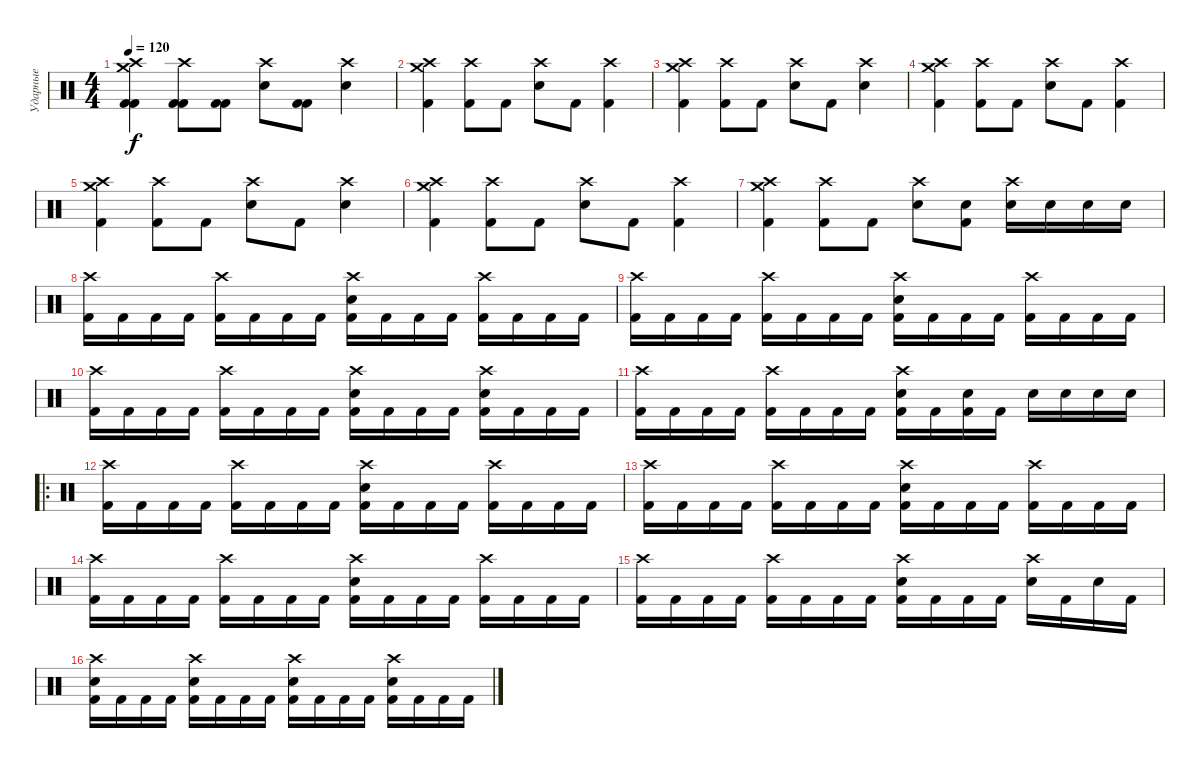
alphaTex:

\track ("Ударные" "Ударные") {instrument percussion}
\staff {score}
\articulation defaults
\ts (4 4)
\tempo 120
\clef neutral
\ks c
("Crash medium (hit)" "Crash high (hit)" "Kick (hit) 2" "Kick (hit) 2").4{dy f} ("Crash high (hit)" "Kick (hit) 2" "Kick (hit) 2").8 ("Kick (hit) 2" "Kick (hit) 2").8 ("Crash high (hit)" "Electric Snare (hit)").8 ("Kick (hit) 2" "Kick (hit) 2").8 ("Crash high (hit)" "Electric Snare (hit)").4 |
("Crash medium (hit)" "Crash high (hit)" "Kick (hit) 2").4 ("Crash high (hit)" "Kick (hit) 2").8 "Kick (hit) 2".8 ("Crash high (hit)" "Electric Snare (hit)").8 "Kick (hit) 2".8 ("Crash high (hit)" "Kick (hit) 2").4 |
("Crash medium (hit)" "Crash high (hit)" "Kick (hit) 2").4 ("Crash high (hit)" "Kick (hit) 2").8 "Kick (hit) 2".8 ("Crash high (hit)" "Electric Snare (hit)").8 "Kick (hit) 2".8 ("Crash high (hit)" "Electric Snare (hit)").4 |
("Crash medium (hit)" "Crash high (hit)" "Kick (hit) 2").4 ("Crash high (hit)" "Kick (hit) 2").8 "Kick (hit) 2".8 ("Crash high (hit)" "Electric Snare (hit)").8 "Kick (hit) 2".8 ("Crash high (hit)" "Kick (hit) 2").4 |
("Crash medium (hit)" "Crash high (hit)" "Kick (hit) 2").4 ("Crash high (hit)" "Kick (hit) 2").8 "Kick (hit) 2".8 ("Crash high (hit)" "Electric Snare (hit)").8 "Kick (hit) 2".8 ("Crash high (hit)" "Electric Snare (hit)").4 |
("Crash medium (hit)" "Crash high (hit)" "Kick (hit) 2").4 ("Crash high (hit)" "Kick (hit) 2").8 "Kick (hit) 2".8 ("Crash high (hit)" "Electric Snare (hit)").8 "Kick (hit) 2".8 ("Crash high (hit)" "Kick (hit) 2").4 |
("Crash medium (hit)" "Crash high (hit)" "Kick (hit) 2").4 ("Crash high (hit)" "Kick (hit) 2").8 "Kick (hit) 2".8 ("Crash high (hit)" "Electric Snare (hit)").8 ("Electric Snare (hit)" "Kick (hit) 2").8 ("Crash high (hit)" "Electric Snare (hit)").16 "Electric Snare (hit)".16 "Electric Snare (hit)".16 "Electric Snare (hit)".16 |
("Crash high (hit)" "Kick (hit) 2").16 "Kick (hit) 2".16 "Kick (hit) 2".16 "Kick (hit) 2".16 ("Crash high (hit)" "Kick (hit) 2").16 "Kick (hit) 2".16 "Kick (hit) 2".16 "Kick (hit) 2".16 ("Crash high (hit)" "Electric Snare (hit)" "Kick (hit) 2").16 "Kick (hit) 2".16 "Kick (hit) 2".16 "Kick (hit) 2".16 ("Crash high (hit)" "Kick (hit) 2").16 "Kick (hit) 2".16 "Kick (hit) 2".16 "Kick (hit) 2".16 |
("Crash high (hit)" "Kick (hit) 2").16 "Kick (hit) 2".16 "Kick (hit) 2".16 "Kick (hit) 2".16 ("Crash high (hit)" "Kick (hit) 2").16 "Kick (hit) 2".16 "Kick (hit) 2".16 "Kick (hit) 2".16 ("Crash high (hit)" "Electric Snare (hit)" "Kick (hit) 2").16 "Kick (hit) 2".16 "Kick (hit) 2".16 "Kick (hit) 2".16 ("Crash high (hit)" "Kick (hit) 2").16 "Kick (hit) 2".16 "Kick (hit) 2".16 "Kick (hit) 2".16 |
("Crash high (hit)" "Kick (hit) 2").16 "Kick (hit) 2".16 "Kick (hit) 2".16 "Kick (hit) 2".16 ("Crash high (hit)" "Kick (hit) 2").16 "Kick (hit) 2".16 "Kick (hit) 2".16 "Kick (hit) 2".16 ("Crash high (hit)" "Electric Snare (hit)" "Kick (hit) 2").16 "Kick (hit) 2".16 "Kick (hit) 2".16 "Kick (hit) 2".16 ("Crash high (hit)" "Electric Snare (hit)" "Kick (hit) 2").16 "Kick (hit) 2".16 "Kick (hit) 2".16 "Kick (hit) 2".16 |
("Crash high (hit)" "Kick (hit) 2").16 "Kick (hit) 2".16 "Kick (hit) 2".16 "Kick (hit) 2".16 ("Crash high (hit)" "Kick (hit) 2").16 "Kick (hit) 2".16 "Kick (hit) 2".16 "Kick (hit) 2".16 ("Crash high (hit)" "Electric Snare (hit)" "Kick (hit) 2").16 "Kick (hit) 2".16 ("Electric Snare (hit)" "Kick (hit) 2").16 "Kick (hit) 2".16 "Electric Snare (hit)".16 "Electric Snare (hit)".16 "Electric Snare (hit)".16 "Electric Snare (hit)".16 |
\ro
("Crash high (hit)" "Kick (hit) 2").16 "Kick (hit) 2".16 "Kick (hit) 2".16 "Kick (hit) 2".16 ("Crash high (hit)" "Kick (hit) 2").16 "Kick (hit) 2".16 "Kick (hit) 2".16 "Kick (hit) 2".16 ("Crash high (hit)" "Electric Snare (hit)" "Kick (hit) 2").16 "Kick (hit) 2".16 "Kick (hit) 2".16 "Kick (hit) 2".16 ("Crash high (hit)" "Kick (hit) 2").16 "Kick (hit) 2".16 "Kick (hit) 2".16 "Kick (hit) 2".16 |
("Crash high (hit)" "Kick (hit) 2").16 "Kick (hit) 2".16 "Kick (hit) 2".16 "Kick (hit) 2".16 ("Crash high (hit)" "Kick (hit) 2").16 "Kick (hit) 2".16 "Kick (hit) 2".16 "Kick (hit) 2".16 ("Crash high (hit)" "Electric Snare (hit)" "Kick (hit) 2").16 "Kick (hit) 2".16 "Kick (hit) 2".16 "Kick (hit) 2".16 ("Crash high (hit)" "Kick (hit) 2").16 "Kick (hit) 2".16 "Kick (hit) 2".16 "Kick (hit) 2".16 |
("Crash high (hit)" "Kick (hit) 2").16 "Kick (hit) 2".16 "Kick (hit) 2".16 "Kick (hit) 2".16 ("Crash high (hit)" "Kick (hit) 2").16 "Kick (hit) 2".16 "Kick (hit) 2".16 "Kick (hit) 2".16 ("Crash high (hit)" "Electric Snare (hit)" "Kick (hit) 2").16 "Kick (hit) 2".16 "Kick (hit) 2".16 "Kick (hit) 2".16 ("Crash high (hit)" "Kick (hit) 2").16 "Kick (hit) 2".16 "Kick (hit) 2".16 "Kick (hit) 2".16 |
("Crash high (hit)" "Kick (hit) 2").16 "Kick (hit) 2".16 "Kick (hit) 2".16 "Kick (hit) 2".16 ("Crash high (hit)" "Kick (hit) 2").16 "Kick (hit) 2".16 "Kick (hit) 2".16 "Kick (hit) 2".16 ("Crash high (hit)" "Electric Snare (hit)" "Kick (hit) 2").16 "Kick (hit) 2".16 "Kick (hit) 2".16 "Kick (hit) 2".16 ("Crash high (hit)" "Electric Snare (hit)").16 "Kick (hit) 2".16 "Electric Snare (hit)".16 "Kick (hit) 2".16 |
("Crash high (hit)" "Electric Snare (hit)" "Kick (hit) 2").16 "Kick (hit) 2".16 "Kick (hit) 2".16 "Kick (hit) 2".16 ("Crash high (hit)" "Electric Snare (hit)" "Kick (hit) 2").16 "Kick (hit) 2".16 "Kick (hit) 2".16 "Kick (hit) 2".16 ("Crash high (hit)" "Electric Snare (hit)" "Kick (hit) 2").16 "Kick (hit) 2".16 "Kick (hit) 2".16 "Kick (hit) 2".16 ("Crash high (hit)" "Electric Snare (hit)" "Kick (hit) 2").16 "Kick (hit) 2".16 "Kick (hit) 2".16 "Kick (hit) 2".16
